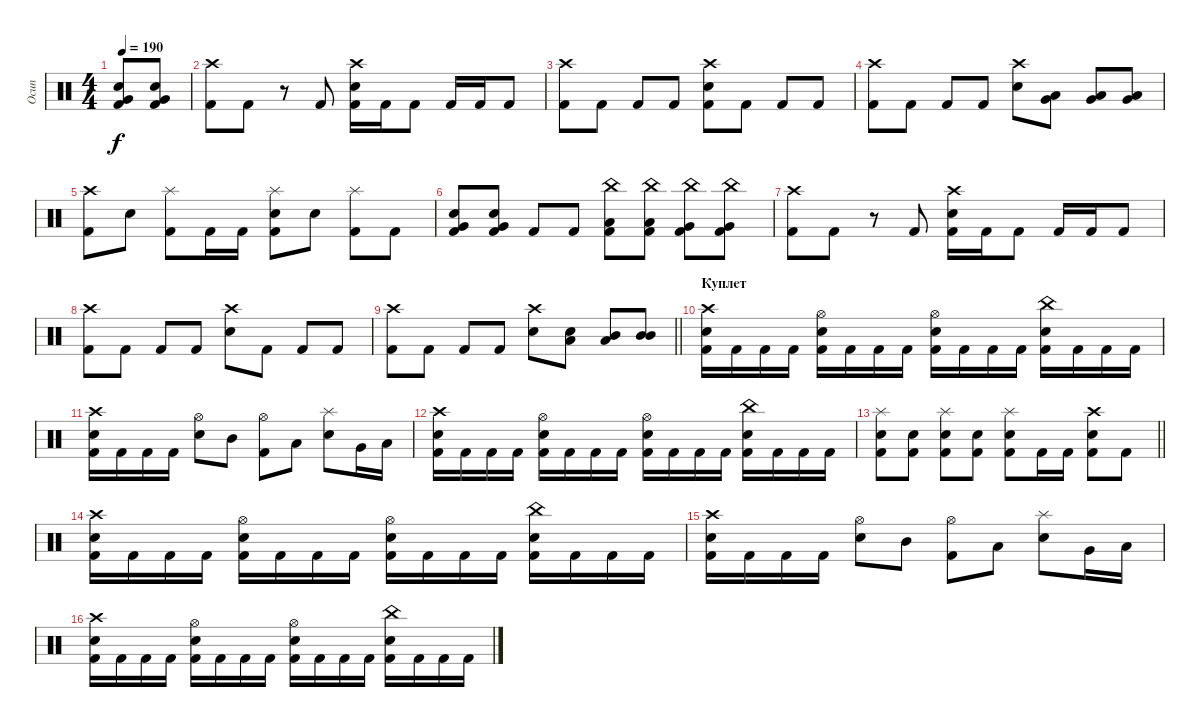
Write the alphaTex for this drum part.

\track ("Осип" "Осип") {instrument percussion}
\staff {score}
\articulation defaults
\ts (4 4)
\tempo 190
\clef neutral
\ks c
("Kick (hit) 2" "Electric Snare (hit)" "Very Low Tom (hit)").8{dy f} ("Kick (hit) 2" "Electric Snare (hit)" "Very Low Tom (hit)").8 |
("Kick (hit) 2" "Crash high (hit)").8 "Kick (hit) 2".8 r.8 "Kick (hit) 2".8 ("Kick (hit) 2" "Electric Snare (hit)" "Crash high (hit)").16 "Kick (hit) 2".16 "Kick (hit) 2".8 "Kick (hit) 2".16 "Kick (hit) 2".16 "Kick (hit) 2".8 |
("Kick (hit) 2" "Crash high (hit)").8 "Kick (hit) 2".8 "Kick (hit) 2".8 "Kick (hit) 2".8 ("Kick (hit) 2" "Electric Snare (hit)" "Crash high (hit)").8 "Kick (hit) 2".8 "Kick (hit) 2".8 "Kick (hit) 2".8 |
("Kick (hit) 2" "Crash high (hit)").8 "Kick (hit) 2".8 "Kick (hit) 2".8 "Kick (hit) 2".8 ("Electric Snare (hit)" "Crash high (hit)").8 ("Low Tom (hit)" "Very Low Tom (hit)").8 ("Low Tom (hit)" "Very Low Tom (hit)").8 ("Low Tom (hit)" "Very Low Tom (hit)").8 |
("Kick (hit) 2" "Crash high (hit)").8 "Electric Snare (hit)".8 ("Kick (hit) 2" "Splash (hit)").8 "Kick (hit) 2".16 "Kick (hit) 2".16 ("Electric Snare (hit)" "Kick (hit) 2" "Splash (hit)").8 "Electric Snare (hit)".8 ("Kick (hit) 2" "Splash (hit)").8 "Kick (hit) 2".8 |
("Kick (hit) 2" "Electric Snare (hit)" "Very Low Tom (hit)").8 ("Kick (hit) 2" "Electric Snare (hit)" "Very Low Tom (hit)").8 "Kick (hit) 2".8 "Kick (hit) 2".8 ("Low Tom (hit)" "Kick (hit) 2" "China (hit)").8 ("Low Tom (hit)" "Kick (hit) 2" "China (hit)").8 ("Very Low Tom (hit)" "Kick (hit) 2" "China (hit)").8 ("Very Low Tom (hit)" "Kick (hit) 2" "China (hit)").8 |
("Kick (hit) 2" "Crash high (hit)").8 "Kick (hit) 2".8 r.8 "Kick (hit) 2".8 ("Kick (hit) 2" "Electric Snare (hit)" "Crash high (hit)").16 "Kick (hit) 2".16 "Kick (hit) 2".8 "Kick (hit) 2".16 "Kick (hit) 2".16 "Kick (hit) 2".8 |
("Kick (hit) 2" "Crash high (hit)").8 "Kick (hit) 2".8 "Kick (hit) 2".8 "Kick (hit) 2".8 ("Electric Snare (hit)" "Crash high (hit)").8 "Kick (hit) 2".8 "Kick (hit) 2".8 "Kick (hit) 2".8 |
\barLineRight lightlight
("Kick (hit) 2" "Crash high (hit)").8 "Kick (hit) 2".8 "Kick (hit) 2".8 "Kick (hit) 2".8 ("Electric Snare (hit)" "Crash high (hit)").8 ("Low Tom (hit)" "Electric Snare (hit)").8 ("Mid Tom (hit)" "Low Tom (hit)").8 ("Mid Tom (hit)" "Mid Tom (hit)").8 |
\section ("" "Куплет")
("Kick (hit) 2" "Electric Snare (hit)" "Crash high (hit)").16 "Kick (hit) 2".16 "Kick (hit) 2".16 "Kick (hit) 2".16 ("Kick (hit) 2" "Electric Snare (hit)" "Hi-Hat (open)").16 "Kick (hit) 2".16 "Kick (hit) 2".16 "Kick (hit) 2".16 ("Kick (hit) 2" "Electric Snare (hit)" "Hi-Hat (open)").16 "Kick (hit) 2".16 "Kick (hit) 2".16 "Kick (hit) 2".16 ("Kick (hit) 2" "Electric Snare (hit)" "China (hit)").16 "Kick (hit) 2".16 "Kick (hit) 2".16 "Kick (hit) 2".16 |
("Kick (hit) 2" "Electric Snare (hit)" "Crash high (hit)").16 "Kick (hit) 2".16 "Kick (hit) 2".16 "Kick (hit) 2".16 ("Electric Snare (hit)" "Hi-Hat (open)").8 "Mid Tom (hit)".8 ("Kick (hit) 2" "Hi-Hat (open)").8 "Low Tom (hit)".8 ("Electric Snare (hit)" "Splash (hit)").8 "Very Low Tom (hit)".16 "Low Tom (hit)".16 |
("Kick (hit) 2" "Electric Snare (hit)" "Crash high (hit)").16 "Kick (hit) 2".16 "Kick (hit) 2".16 "Kick (hit) 2".16 ("Kick (hit) 2" "Electric Snare (hit)" "Hi-Hat (open)").16 "Kick (hit) 2".16 "Kick (hit) 2".16 "Kick (hit) 2".16 ("Kick (hit) 2" "Electric Snare (hit)" "Hi-Hat (open)").16 "Kick (hit) 2".16 "Kick (hit) 2".16 "Kick (hit) 2".16 ("Kick (hit) 2" "Electric Snare (hit)" "China (hit)").16 "Kick (hit) 2".16 "Kick (hit) 2".16 "Kick (hit) 2".16 |
\barLineRight lightlight
("Kick (hit) 2" "Electric Snare (hit)" "Splash (hit)").8 ("Kick (hit) 2" "Electric Snare (hit)").8 ("Kick (hit) 2" "Electric Snare (hit)" "Splash (hit)").8 ("Kick (hit) 2" "Electric Snare (hit)").8 ("Kick (hit) 2" "Electric Snare (hit)" "Splash (hit)").8 "Kick (hit) 2".16 "Kick (hit) 2".16 ("Kick (hit) 2" "Electric Snare (hit)" "Crash high (hit)").8 "Kick (hit) 2".8 |
("Kick (hit) 2" "Electric Snare (hit)" "Crash high (hit)").16 "Kick (hit) 2".16 "Kick (hit) 2".16 "Kick (hit) 2".16 ("Kick (hit) 2" "Electric Snare (hit)" "Hi-Hat (open)").16 "Kick (hit) 2".16 "Kick (hit) 2".16 "Kick (hit) 2".16 ("Kick (hit) 2" "Electric Snare (hit)" "Hi-Hat (open)").16 "Kick (hit) 2".16 "Kick (hit) 2".16 "Kick (hit) 2".16 ("Kick (hit) 2" "Electric Snare (hit)" "China (hit)").16 "Kick (hit) 2".16 "Kick (hit) 2".16 "Kick (hit) 2".16 |
("Kick (hit) 2" "Electric Snare (hit)" "Crash high (hit)").16 "Kick (hit) 2".16 "Kick (hit) 2".16 "Kick (hit) 2".16 ("Electric Snare (hit)" "Hi-Hat (open)").8 "Mid Tom (hit)".8 ("Kick (hit) 2" "Hi-Hat (open)").8 "Low Tom (hit)".8 ("Electric Snare (hit)" "Splash (hit)").8 "Very Low Tom (hit)".16 "Low Tom (hit)".16 |
("Kick (hit) 2" "Electric Snare (hit)" "Crash high (hit)").16 "Kick (hit) 2".16 "Kick (hit) 2".16 "Kick (hit) 2".16 ("Kick (hit) 2" "Electric Snare (hit)" "Hi-Hat (open)").16 "Kick (hit) 2".16 "Kick (hit) 2".16 "Kick (hit) 2".16 ("Kick (hit) 2" "Electric Snare (hit)" "Hi-Hat (open)").16 "Kick (hit) 2".16 "Kick (hit) 2".16 "Kick (hit) 2".16 ("Kick (hit) 2" "Electric Snare (hit)" "China (hit)").16 "Kick (hit) 2".16 "Kick (hit) 2".16 "Kick (hit) 2".16
